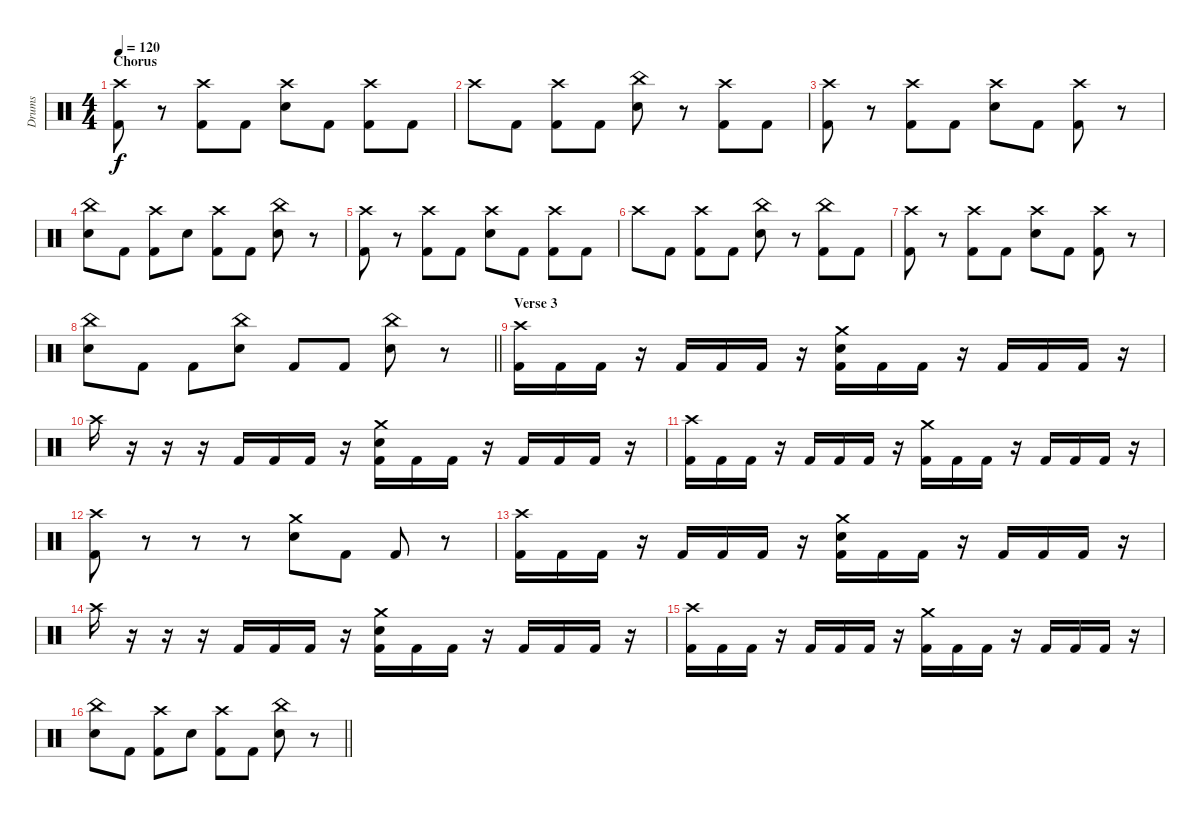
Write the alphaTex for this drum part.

\track ("Drums" "Drums") {instrument percussion}
\staff {score}
\articulation defaults
\ts (4 4)
\section ("" "Chorus")
\tempo 120
\clef neutral
\ks c
("Kick (hit) 2" "Crash high (hit)").8{dy f} r.8 ("Kick (hit) 2" "Crash high (hit)").8 "Kick (hit) 2".8 ("Electric Snare (hit)" "Crash high (hit)").8 "Kick (hit) 2".8 ("Kick (hit) 2" "Crash high (hit)").8 "Kick (hit) 2".8 |
"Crash high (hit)".8 "Kick (hit) 2".8 ("Kick (hit) 2" "Crash high (hit)").8 "Kick (hit) 2".8 ("Electric Snare (hit)" "China (hit)").8 r.8 ("Kick (hit) 2" "Crash high (hit)").8 "Kick (hit) 2".8 |
("Kick (hit) 2" "Crash high (hit)").8 r.8 ("Kick (hit) 2" "Crash high (hit)").8 "Kick (hit) 2".8 ("Electric Snare (hit)" "Crash high (hit)").8 "Kick (hit) 2".8 ("Kick (hit) 2" "Crash high (hit)").8 r.8 |
("Electric Snare (hit)" "China (hit)").8 "Kick (hit) 2".8 ("Kick (hit) 2" "Crash high (hit)").8 "Electric Snare (hit)".8 ("Kick (hit) 2" "Crash high (hit)").8 "Kick (hit) 2".8 ("Electric Snare (hit)" "China (hit)").8 r.8 |
("Kick (hit) 2" "Crash high (hit)").8 r.8 ("Kick (hit) 2" "Crash high (hit)").8 "Kick (hit) 2".8 ("Electric Snare (hit)" "Crash high (hit)").8 "Kick (hit) 2".8 ("Kick (hit) 2" "Crash high (hit)").8 "Kick (hit) 2".8 |
"Crash high (hit)".8 "Kick (hit) 2".8 ("Kick (hit) 2" "Crash high (hit)").8 "Kick (hit) 2".8 ("Electric Snare (hit)" "China (hit)").8 r.8 ("Kick (hit) 2" "China (hit)").8 "Kick (hit) 2".8 |
("Kick (hit) 2" "Crash high (hit)").8 r.8 ("Kick (hit) 2" "Crash high (hit)").8 "Kick (hit) 2".8 ("Electric Snare (hit)" "Crash high (hit)").8 "Kick (hit) 2".8 ("Kick (hit) 2" "Crash high (hit)").8 r.8 |
\barLineRight lightlight
("Electric Snare (hit)" "China (hit)").8 "Kick (hit) 2".8 "Kick (hit) 2".8 ("Electric Snare (hit)" "China (hit)").8 "Kick (hit) 2".8 "Kick (hit) 2".8 ("Electric Snare (hit)" "China (hit)").8 r.8 |
\section ("" "Verse 3")
("Kick (hit) 2" "Crash high (hit)").16 "Kick (hit) 2".16 "Kick (hit) 2".16 r.16 "Kick (hit) 2".16 "Kick (hit) 2".16 "Kick (hit) 2".16 r.16 ("Kick (hit) 2" "Electric Snare (hit)" "Crash medium (hit)").16 "Kick (hit) 2".16 "Kick (hit) 2".16 r.16 "Kick (hit) 2".16 "Kick (hit) 2".16 "Kick (hit) 2".16 r.16 |
"Crash high (hit)".16 r.16 r.16 r.16 "Kick (hit) 2".16 "Kick (hit) 2".16 "Kick (hit) 2".16 r.16 ("Kick (hit) 2" "Electric Snare (hit)" "Crash medium (hit)").16 "Kick (hit) 2".16 "Kick (hit) 2".16 r.16 "Kick (hit) 2".16 "Kick (hit) 2".16 "Kick (hit) 2".16 r.16 |
("Kick (hit) 2" "Crash high (hit)").16 "Kick (hit) 2".16 "Kick (hit) 2".16 r.16 "Kick (hit) 2".16 "Kick (hit) 2".16 "Kick (hit) 2".16 r.16 ("Kick (hit) 2" "Crash medium (hit)").16 "Kick (hit) 2".16 "Kick (hit) 2".16 r.16 "Kick (hit) 2".16 "Kick (hit) 2".16 "Kick (hit) 2".16 r.16 |
("Kick (hit) 2" "Crash high (hit)").8 r.8 r.8 r.8 ("Electric Snare (hit)" "Crash medium (hit)").8 "Kick (hit) 2".8 "Kick (hit) 2".8 r.8 |
("Kick (hit) 2" "Crash high (hit)").16 "Kick (hit) 2".16 "Kick (hit) 2".16 r.16 "Kick (hit) 2".16 "Kick (hit) 2".16 "Kick (hit) 2".16 r.16 ("Kick (hit) 2" "Electric Snare (hit)" "Crash medium (hit)").16 "Kick (hit) 2".16 "Kick (hit) 2".16 r.16 "Kick (hit) 2".16 "Kick (hit) 2".16 "Kick (hit) 2".16 r.16 |
"Crash high (hit)".16 r.16 r.16 r.16 "Kick (hit) 2".16 "Kick (hit) 2".16 "Kick (hit) 2".16 r.16 ("Kick (hit) 2" "Electric Snare (hit)" "Crash medium (hit)").16 "Kick (hit) 2".16 "Kick (hit) 2".16 r.16 "Kick (hit) 2".16 "Kick (hit) 2".16 "Kick (hit) 2".16 r.16 |
("Kick (hit) 2" "Crash high (hit)").16 "Kick (hit) 2".16 "Kick (hit) 2".16 r.16 "Kick (hit) 2".16 "Kick (hit) 2".16 "Kick (hit) 2".16 r.16 ("Kick (hit) 2" "Crash medium (hit)").16 "Kick (hit) 2".16 "Kick (hit) 2".16 r.16 "Kick (hit) 2".16 "Kick (hit) 2".16 "Kick (hit) 2".16 r.16 |
\barLineRight lightlight
("Electric Snare (hit)" "China (hit)").8 "Kick (hit) 2".8 ("Kick (hit) 2" "Crash high (hit)").8 "Electric Snare (hit)".8 ("Kick (hit) 2" "Crash high (hit)").8 "Kick (hit) 2".8 ("Electric Snare (hit)" "China (hit)").8 r.8
